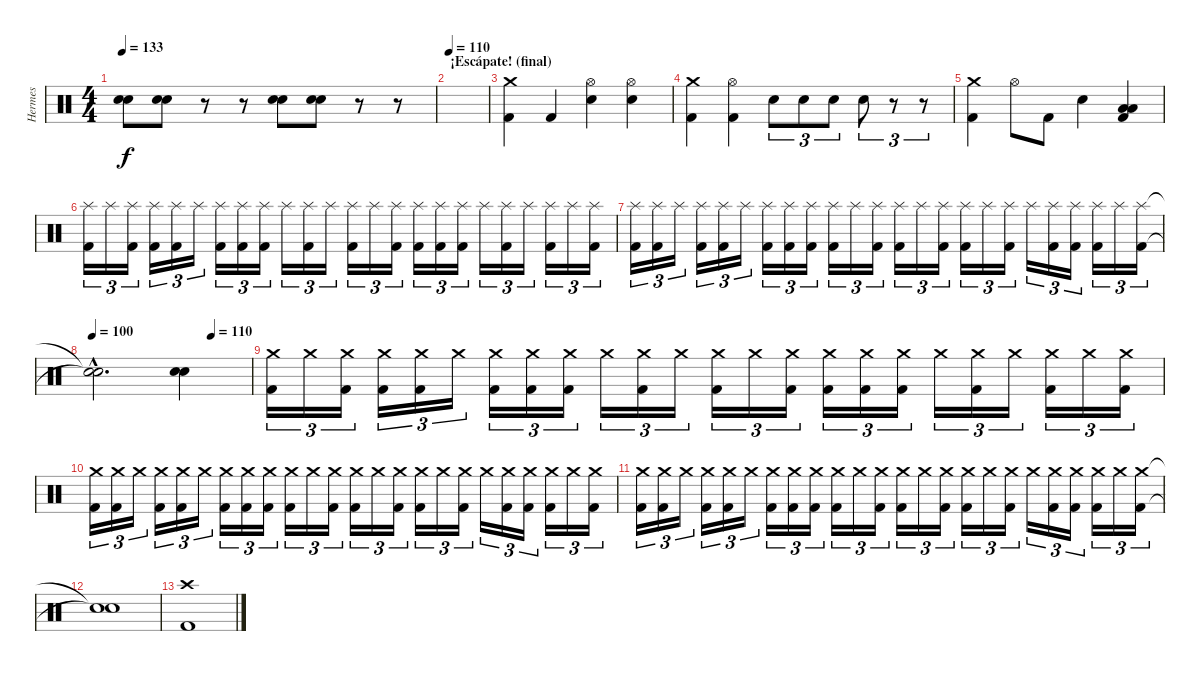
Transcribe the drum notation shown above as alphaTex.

\track ("Hermes" "Hermes") {instrument percussion}
\staff {score}
\articulation defaults
\ts (4 4)
\tempo 133
\clef neutral
\ks c
("Snare (hit) 2" "Snare (hit) 2").8{dy f} ("Snare (hit) 2" "Snare (hit) 2").8 r.8 r.8 ("Snare (hit) 2" "Snare (hit) 2").8 ("Snare (hit) 2" "Snare (hit) 2").8 r.8 r.8 |
\section ("" "¡Escápate! (final)")
\tempo 110
|
("Crash medium (hit)" "Kick (hit) 2").4 "Kick (hit) 2".4 ("Hi-Hat (open)" "Snare (hit) 2").4 ("Hi-Hat (open)" "Snare (hit) 2").4 |
("Crash medium (hit)" "Kick (hit) 2").4 ("Hi-Hat (open)" "Kick (hit) 2").4 "Snare (hit) 2".8{tu (3 2)} "Snare (hit) 2".8{tu (3 2)} "Snare (hit) 2".8{tu (3 2)} "Snare (hit) 2".8{tu (3 2)} r.8{tu (3 2)} r.8{tu (3 2)} |
("Crash medium (hit)" "Kick (hit) 2").4 "Hi-Hat (open)".8 "Kick (hit) 2".8 "Snare (hit) 2".4 ("Low Floor Tom (hit)" "Low Floor Tom (hit)" "Kick (hit) 2").4 |
("Splash (hit)" "Kick (hit) 2").16{tu (3 2)} "Splash (hit)".16{tu (3 2)} ("Splash (hit)" "Kick (hit) 2").16{tu (3 2)} ("Splash (hit)" "Kick (hit) 2").16{tu (3 2)} ("Splash (hit)" "Kick (hit) 2").16{tu (3 2)} "Splash (hit)".16{tu (3 2)} ("Splash (hit)" "Kick (hit) 2").16{tu (3 2)} ("Splash (hit)" "Kick (hit) 2").16{tu (3 2)} ("Splash (hit)" "Kick (hit) 2").16{tu (3 2)} "Splash (hit)".16{tu (3 2)} ("Splash (hit)" "Kick (hit) 2").16{tu (3 2)} "Splash (hit)".16{tu (3 2)} ("Splash (hit)" "Kick (hit) 2").16{tu (3 2)} "Splash (hit)".16{tu (3 2)} ("Splash (hit)" "Kick (hit) 2").16{tu (3 2)} ("Splash (hit)" "Kick (hit) 2").16{tu (3 2)} ("Splash (hit)" "Kick (hit) 2").16{tu (3 2)} ("Splash (hit)" "Kick (hit) 2").16{tu (3 2)} "Splash (hit)".16{tu (3 2)} ("Splash (hit)" "Kick (hit) 2").16{tu (3 2)} "Splash (hit)".16{tu (3 2)} ("Splash (hit)" "Kick (hit) 2").16{tu (3 2)} "Splash (hit)".16{tu (3 2)} ("Splash (hit)" "Kick (hit) 2").16{tu (3 2)} |
("Splash (hit)" "Kick (hit) 2").16{tu (3 2)} ("Splash (hit)" "Kick (hit) 2").16{tu (3 2)} "Splash (hit)".16{tu (3 2)} ("Splash (hit)" "Kick (hit) 2").16{tu (3 2)} ("Splash (hit)" "Kick (hit) 2").16{tu (3 2)} "Splash (hit)".16{tu (3 2)} ("Splash (hit)" "Kick (hit) 2").16{tu (3 2)} ("Splash (hit)" "Kick (hit) 2").16{tu (3 2)} ("Splash (hit)" "Kick (hit) 2").16{tu (3 2)} ("Splash (hit)" "Kick (hit) 2").16{tu (3 2)} "Splash (hit)".16{tu (3 2)} ("Splash (hit)" "Kick (hit) 2").16{tu (3 2)} ("Splash (hit)" "Kick (hit) 2").16{tu (3 2)} "Splash (hit)".16{tu (3 2)} ("Splash (hit)" "Kick (hit) 2").16{tu (3 2)} ("Splash (hit)" "Kick (hit) 2").16{tu (3 2)} "Splash (hit)".16{tu (3 2)} ("Splash (hit)" "Kick (hit) 2").16{tu (3 2)} "Splash (hit)".16{tu (3 2)} ("Splash (hit)" "Kick (hit) 2").16{tu (3 2)} ("Splash (hit)" "Kick (hit) 2").16{tu (3 2)} ("Splash (hit)" "Kick (hit) 2").16{tu (3 2)} "Splash (hit)".16{tu (3 2)} ("Splash (hit)" "Kick (hit) 2").16{tu (3 2)} |
\tempo 100
\tempo (110 0.75)
("Snare (hit)"{hac t} "Snare (hit)"{hac t}).2{d} ("Snare (hit) 2" "Snare (hit) 2").4 |
("Crash medium (hit)" "Kick (hit) 2").16{tu (3 2)} "Crash medium (hit)".16{tu (3 2)} ("Crash medium (hit)" "Kick (hit) 2").16{tu (3 2)} ("Crash medium (hit)" "Kick (hit) 2").16{tu (3 2)} ("Crash medium (hit)" "Kick (hit) 2").16{tu (3 2)} "Crash medium (hit)".16{tu (3 2)} ("Crash medium (hit)" "Kick (hit) 2").16{tu (3 2)} ("Crash medium (hit)" "Kick (hit) 2").16{tu (3 2)} ("Crash medium (hit)" "Kick (hit) 2").16{tu (3 2)} "Crash medium (hit)".16{tu (3 2)} ("Crash medium (hit)" "Kick (hit) 2").16{tu (3 2)} "Crash medium (hit)".16{tu (3 2)} ("Crash medium (hit)" "Kick (hit) 2").16{tu (3 2)} "Crash medium (hit)".16{tu (3 2)} ("Crash medium (hit)" "Kick (hit) 2").16{tu (3 2)} ("Crash medium (hit)" "Kick (hit) 2").16{tu (3 2)} ("Crash medium (hit)" "Kick (hit) 2").16{tu (3 2)} ("Crash medium (hit)" "Kick (hit) 2").16{tu (3 2)} "Crash medium (hit)".16{tu (3 2)} ("Crash medium (hit)" "Kick (hit) 2").16{tu (3 2)} "Crash medium (hit)".16{tu (3 2)} ("Crash medium (hit)" "Kick (hit) 2").16{tu (3 2)} "Crash medium (hit)".16{tu (3 2)} ("Crash medium (hit)" "Kick (hit) 2").16{tu (3 2)} |
("Crash medium (hit)" "Kick (hit) 2").16{tu (3 2)} ("Crash medium (hit)" "Kick (hit) 2").16{tu (3 2)} "Crash medium (hit)".16{tu (3 2)} ("Crash medium (hit)" "Kick (hit) 2").16{tu (3 2)} ("Crash medium (hit)" "Kick (hit) 2").16{tu (3 2)} "Crash medium (hit)".16{tu (3 2)} ("Crash medium (hit)" "Kick (hit) 2").16{tu (3 2)} ("Crash medium (hit)" "Kick (hit) 2").16{tu (3 2)} ("Crash medium (hit)" "Kick (hit) 2").16{tu (3 2)} ("Crash medium (hit)" "Kick (hit) 2").16{tu (3 2)} "Crash medium (hit)".16{tu (3 2)} ("Crash medium (hit)" "Kick (hit) 2").16{tu (3 2)} ("Crash medium (hit)" "Kick (hit) 2").16{tu (3 2)} "Crash medium (hit)".16{tu (3 2)} ("Crash medium (hit)" "Kick (hit) 2").16{tu (3 2)} ("Crash medium (hit)" "Kick (hit) 2").16{tu (3 2)} "Crash medium (hit)".16{tu (3 2)} ("Crash medium (hit)" "Kick (hit) 2").16{tu (3 2)} "Crash medium (hit)".16{tu (3 2)} ("Crash medium (hit)" "Kick (hit) 2").16{tu (3 2)} ("Crash medium (hit)" "Kick (hit) 2").16{tu (3 2)} ("Crash medium (hit)" "Kick (hit) 2").16{tu (3 2)} "Crash medium (hit)".16{tu (3 2)} ("Crash medium (hit)" "Kick (hit) 2").16{tu (3 2)} |
("Crash medium (hit)" "Kick (hit) 2").16{tu (3 2)} ("Crash medium (hit)" "Kick (hit) 2").16{tu (3 2)} "Crash medium (hit)".16{tu (3 2)} ("Crash medium (hit)" "Kick (hit) 2").16{tu (3 2)} ("Crash medium (hit)" "Kick (hit) 2").16{tu (3 2)} "Crash medium (hit)".16{tu (3 2)} ("Crash medium (hit)" "Kick (hit) 2").16{tu (3 2)} ("Crash medium (hit)" "Kick (hit) 2").16{tu (3 2)} ("Crash medium (hit)" "Kick (hit) 2").16{tu (3 2)} ("Crash medium (hit)" "Kick (hit) 2").16{tu (3 2)} "Crash medium (hit)".16{tu (3 2)} ("Crash medium (hit)" "Kick (hit) 2").16{tu (3 2)} ("Crash medium (hit)" "Kick (hit) 2").16{tu (3 2)} "Crash medium (hit)".16{tu (3 2)} ("Crash medium (hit)" "Kick (hit) 2").16{tu (3 2)} ("Crash medium (hit)" "Kick (hit) 2").16{tu (3 2)} "Crash medium (hit)".16{tu (3 2)} ("Crash medium (hit)" "Kick (hit) 2").16{tu (3 2)} "Crash medium (hit)".16{tu (3 2)} ("Crash medium (hit)" "Kick (hit) 2").16{tu (3 2)} ("Crash medium (hit)" "Kick (hit) 2").16{tu (3 2)} ("Crash medium (hit)" "Kick (hit) 2").16{tu (3 2)} "Crash medium (hit)".16{tu (3 2)} ("Crash medium (hit)" "Kick (hit) 2").16{tu (3 2)} |
("Snare (hit)"{t} "Snare (hit)"{t}).1 |
("Crash high (hit)" "Kick (hit) 2").1
